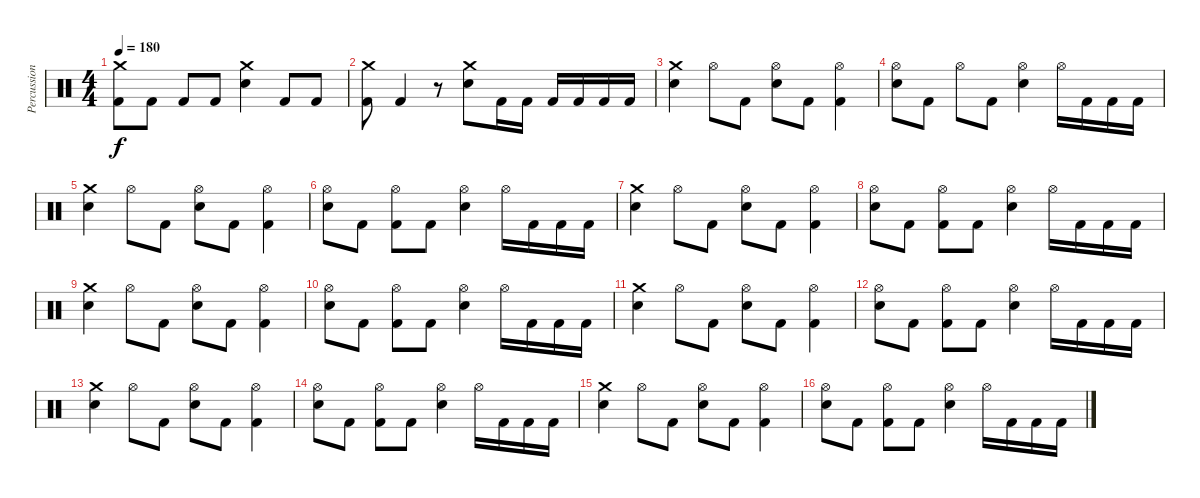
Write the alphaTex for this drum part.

\track ("Percussion" "Percussion") {instrument percussion}
\staff {score}
\articulation defaults
\ts (4 4)
\tempo 180
\clef neutral
\ks c
("Crash medium (hit)" "Kick (hit) 2").8{dy f} "Kick (hit) 2".8 "Kick (hit) 2".8 "Kick (hit) 2".8 ("Crash medium (hit)" "Electric Snare (hit)").4 "Kick (hit) 2".8 "Kick (hit) 2".8 |
("Crash medium (hit)" "Kick (hit) 2").8 "Kick (hit) 2".4 r.8 ("Crash medium (hit)" "Electric Snare (hit)").8 "Kick (hit) 2".16 "Kick (hit) 2".16 "Kick (hit) 2".16 "Kick (hit) 2".16 "Kick (hit) 2".16 "Kick (hit) 2".16 |
("Crash medium (hit)" "Electric Snare (hit)").4 "Hi-Hat (open)".8 "Kick (hit) 2".8 ("Hi-Hat (open)" "Electric Snare (hit)").8 "Kick (hit) 2".8 ("Hi-Hat (open)" "Kick (hit) 2").4 |
("Hi-Hat (open)" "Electric Snare (hit)").8 "Kick (hit) 2".8 "Hi-Hat (open)".8 "Kick (hit) 2".8 ("Hi-Hat (open)" "Electric Snare (hit)").4 "Hi-Hat (open)".16 "Kick (hit) 2".16 "Kick (hit) 2".16 "Kick (hit) 2".16 |
("Crash medium (hit)" "Electric Snare (hit)").4 "Hi-Hat (open)".8 "Kick (hit) 2".8 ("Hi-Hat (open)" "Electric Snare (hit)").8 "Kick (hit) 2".8 ("Hi-Hat (open)" "Kick (hit) 2").4 |
("Hi-Hat (open)" "Electric Snare (hit)").8 "Kick (hit) 2".8 ("Hi-Hat (open)" "Kick (hit) 2").8 "Kick (hit) 2".8 ("Hi-Hat (open)" "Electric Snare (hit)").4 "Hi-Hat (open)".16 "Kick (hit) 2".16 "Kick (hit) 2".16 "Kick (hit) 2".16 |
("Crash medium (hit)" "Electric Snare (hit)").4 "Hi-Hat (open)".8 "Kick (hit) 2".8 ("Hi-Hat (open)" "Electric Snare (hit)").8 "Kick (hit) 2".8 ("Hi-Hat (open)" "Kick (hit) 2").4 |
("Hi-Hat (open)" "Electric Snare (hit)").8 "Kick (hit) 2".8 ("Hi-Hat (open)" "Kick (hit) 2").8 "Kick (hit) 2".8 ("Hi-Hat (open)" "Electric Snare (hit)").4 "Hi-Hat (open)".16 "Kick (hit) 2".16 "Kick (hit) 2".16 "Kick (hit) 2".16 |
("Crash medium (hit)" "Electric Snare (hit)").4 "Hi-Hat (open)".8 "Kick (hit) 2".8 ("Hi-Hat (open)" "Electric Snare (hit)").8 "Kick (hit) 2".8 ("Hi-Hat (open)" "Kick (hit) 2").4 |
("Hi-Hat (open)" "Electric Snare (hit)").8 "Kick (hit) 2".8 ("Hi-Hat (open)" "Kick (hit) 2").8 "Kick (hit) 2".8 ("Hi-Hat (open)" "Electric Snare (hit)").4 "Hi-Hat (open)".16 "Kick (hit) 2".16 "Kick (hit) 2".16 "Kick (hit) 2".16 |
("Crash medium (hit)" "Electric Snare (hit)").4 "Hi-Hat (open)".8 "Kick (hit) 2".8 ("Hi-Hat (open)" "Electric Snare (hit)").8 "Kick (hit) 2".8 ("Hi-Hat (open)" "Kick (hit) 2").4 |
("Hi-Hat (open)" "Electric Snare (hit)").8 "Kick (hit) 2".8 ("Hi-Hat (open)" "Kick (hit) 2").8 "Kick (hit) 2".8 ("Hi-Hat (open)" "Electric Snare (hit)").4 "Hi-Hat (open)".16 "Kick (hit) 2".16 "Kick (hit) 2".16 "Kick (hit) 2".16 |
("Crash medium (hit)" "Electric Snare (hit)").4 "Hi-Hat (open)".8 "Kick (hit) 2".8 ("Hi-Hat (open)" "Electric Snare (hit)").8 "Kick (hit) 2".8 ("Hi-Hat (open)" "Kick (hit) 2").4 |
("Hi-Hat (open)" "Electric Snare (hit)").8 "Kick (hit) 2".8 ("Hi-Hat (open)" "Kick (hit) 2").8 "Kick (hit) 2".8 ("Hi-Hat (open)" "Electric Snare (hit)").4 "Hi-Hat (open)".16 "Kick (hit) 2".16 "Kick (hit) 2".16 "Kick (hit) 2".16 |
("Crash medium (hit)" "Electric Snare (hit)").4 "Hi-Hat (open)".8 "Kick (hit) 2".8 ("Hi-Hat (open)" "Electric Snare (hit)").8 "Kick (hit) 2".8 ("Hi-Hat (open)" "Kick (hit) 2").4 |
("Hi-Hat (open)" "Electric Snare (hit)").8 "Kick (hit) 2".8 ("Hi-Hat (open)" "Kick (hit) 2").8 "Kick (hit) 2".8 ("Hi-Hat (open)" "Electric Snare (hit)").4 "Hi-Hat (open)".16 "Kick (hit) 2".16 "Kick (hit) 2".16 "Kick (hit) 2".16
